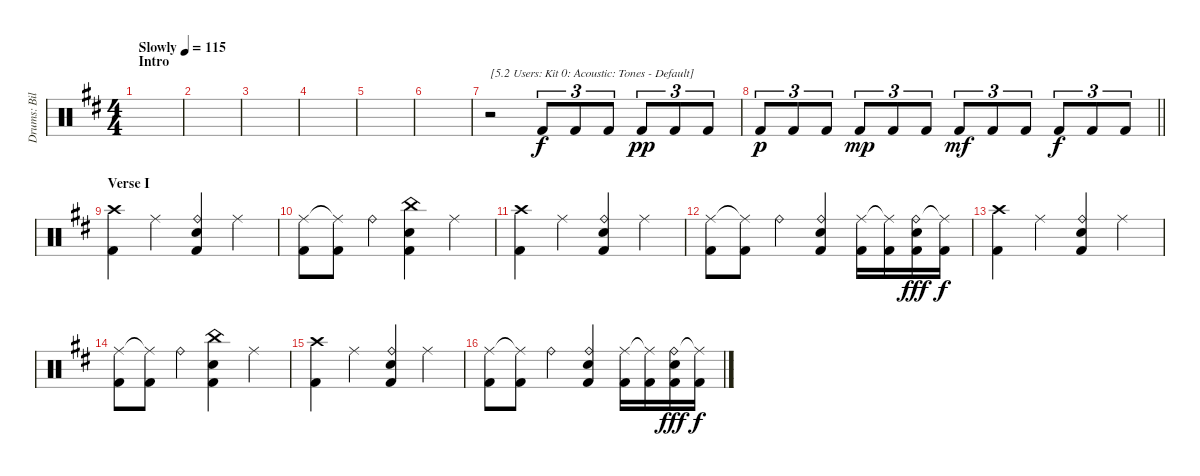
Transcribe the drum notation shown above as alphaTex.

\track ("Drums: Bill" "Drums: Bil") {instrument percussion}
\staff {score}
\articulation defaults
\ts (4 4)
\section ("" "Intro")
\tempo (115 "Slowly")
\clef neutral
\ks d
|
|
|
|
|
|
r.2{txt "[5.2 Users: Kit 0: Acoustic: Tones - Default]"} "Kick (hit) 2".8{tu (3 2)} "Kick (hit) 2".8{tu (3 2)} "Kick (hit) 2".8{tu (3 2)} "Kick (hit) 2".8{tu (3 2) dy pp} "Kick (hit) 2".8{tu (3 2)} "Kick (hit) 2".8{tu (3 2)} |
\barLineRight lightlight "Kick (hit) 2".8{tu (3 2) dy p} "Kick (hit) 2".8{tu (3 2)} "Kick (hit) 2".8{tu (3 2)} "Kick (hit) 2".8{tu (3 2) dy mp} "Kick (hit) 2".8{tu (3 2)} "Kick (hit) 2".8{tu (3 2)} "Kick (hit) 2".8{tu (3 2) dy mf} "Kick (hit) 2".8{tu (3 2)} "Kick (hit) 2".8{tu (3 2)} "Kick (hit) 2".8{tu (3 2) dy f} "Kick (hit) 2".8{tu (3 2)} "Kick (hit) 2".8{tu (3 2)}
|
\section ("" "Verse I")
("Crash high (hit)" "Kick (hit) 2").4 "Ride (middle)".4 ("Ride (bell)" "Snare (hit) 2" "Kick (hit) 2").4 "Ride (middle)".4 |
("Ride (middle)" "Kick (hit) 2").8 ("Ride (middle)"{t} "Kick (hit) 2").8 "Ride (bell)".4 ("China (hit)" "Snare (hit) 2" "Kick (hit) 2").4 "Ride (middle)".4 |
("Crash high (hit)" "Kick (hit) 2").4 "Ride (middle)".4 ("Ride (bell)" "Snare (hit) 2" "Kick (hit) 2").4 "Ride (middle)".4 |
("Ride (middle)" "Kick (hit) 2").8 ("Ride (middle)"{t} "Kick (hit) 2").8 "Ride (bell)".4 ("Ride (bell)" "Snare (hit) 2" "Kick (hit) 2").4 ("Ride (middle)" "Kick (hit) 2").16 ("Ride (middle)"{t} "Kick (hit) 2").16 ("Ride (bell)" "Snare (hit) 2" "Kick (hit) 2").16{dy fff} ("Ride (middle)"{t} "Kick (hit) 2").16{dy f} |
("Crash high (hit)" "Kick (hit) 2").4 "Ride (middle)".4 ("Ride (bell)" "Snare (hit) 2" "Kick (hit) 2").4 "Ride (middle)".4 |
("Ride (middle)" "Kick (hit) 2").8 ("Ride (middle)"{t} "Kick (hit) 2").8 "Ride (bell)".4 ("China (hit)" "Snare (hit) 2" "Kick (hit) 2").4 "Ride (middle)".4 |
("Crash high (hit)" "Kick (hit) 2").4 "Ride (middle)".4 ("Ride (bell)" "Snare (hit) 2" "Kick (hit) 2").4 "Ride (middle)".4 |
("Ride (middle)" "Kick (hit) 2").8 ("Ride (middle)"{t} "Kick (hit) 2").8 "Ride (bell)".4 ("Ride (bell)" "Snare (hit) 2" "Kick (hit) 2").4 ("Ride (middle)" "Kick (hit) 2").16 ("Ride (middle)"{t} "Kick (hit) 2").16 ("Ride (bell)" "Snare (hit) 2" "Kick (hit) 2").16{dy fff} ("Ride (middle)"{t} "Kick (hit) 2").16{dy f}
